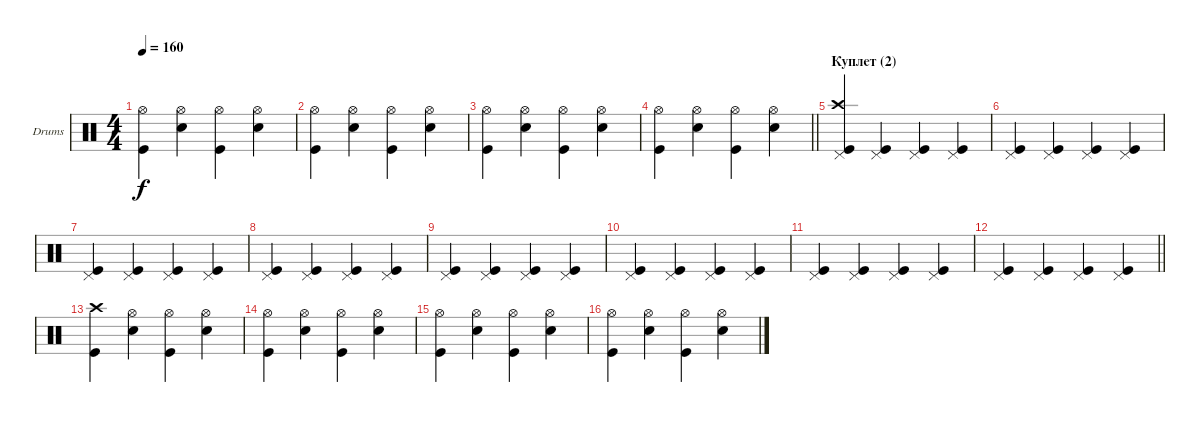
\bracketExtendMode groupsimilarinstruments
\firstSystemTrackNameOrientation horizontal
\otherSystemsTrackNameOrientation horizontal
\track ("Drumkit" "Drums") {instrument percussion}
\staff {score}
\articulation defaults
\ts (4 4)
\tempo 160
\clef neutral
\ks c
("Hi-Hat (open)" "Kick (hit)").4{dy f} ("Hi-Hat (open)" "Snare (hit) 2").4 ("Hi-Hat (open)" "Kick (hit)").4 ("Hi-Hat (open)" "Snare (hit) 2").4 |
("Hi-Hat (open)" "Kick (hit)").4 ("Hi-Hat (open)" "Snare (hit) 2").4 ("Hi-Hat (open)" "Kick (hit)").4 ("Hi-Hat (open)" "Snare (hit) 2").4 |
("Hi-Hat (open)" "Kick (hit)").4 ("Hi-Hat (open)" "Snare (hit) 2").4 ("Hi-Hat (open)" "Kick (hit)").4 ("Hi-Hat (open)" "Snare (hit) 2").4 |
\barLineRight lightlight
("Hi-Hat (open)" "Kick (hit)").4 ("Hi-Hat (open)" "Snare (hit) 2").4 ("Hi-Hat (open)" "Kick (hit)").4 ("Hi-Hat (open)" "Snare (hit) 2").4 |
\section ("" "Куплет (2)")
("Crash high (hit)" "Pedal Hi-Hat (hit)" "Kick (hit)").4 ("Pedal Hi-Hat (hit)" "Kick (hit)").4 ("Pedal Hi-Hat (hit)" "Kick (hit)").4 ("Pedal Hi-Hat (hit)" "Kick (hit)").4 |
("Pedal Hi-Hat (hit)" "Kick (hit)").4 ("Pedal Hi-Hat (hit)" "Kick (hit)").4 ("Pedal Hi-Hat (hit)" "Kick (hit)").4 ("Pedal Hi-Hat (hit)" "Kick (hit)").4 |
("Pedal Hi-Hat (hit)" "Kick (hit)").4 ("Pedal Hi-Hat (hit)" "Kick (hit)").4 ("Pedal Hi-Hat (hit)" "Kick (hit)").4 ("Pedal Hi-Hat (hit)" "Kick (hit)").4 |
("Pedal Hi-Hat (hit)" "Kick (hit)").4 ("Pedal Hi-Hat (hit)" "Kick (hit)").4 ("Pedal Hi-Hat (hit)" "Kick (hit)").4 ("Pedal Hi-Hat (hit)" "Kick (hit)").4 |
("Pedal Hi-Hat (hit)" "Kick (hit)").4 ("Pedal Hi-Hat (hit)" "Kick (hit)").4 ("Pedal Hi-Hat (hit)" "Kick (hit)").4 ("Pedal Hi-Hat (hit)" "Kick (hit)").4 |
("Pedal Hi-Hat (hit)" "Kick (hit)").4 ("Pedal Hi-Hat (hit)" "Kick (hit)").4 ("Pedal Hi-Hat (hit)" "Kick (hit)").4 ("Pedal Hi-Hat (hit)" "Kick (hit)").4 |
("Pedal Hi-Hat (hit)" "Kick (hit)").4 ("Pedal Hi-Hat (hit)" "Kick (hit)").4 ("Pedal Hi-Hat (hit)" "Kick (hit)").4 ("Pedal Hi-Hat (hit)" "Kick (hit)").4 |
\barLineRight lightlight
("Pedal Hi-Hat (hit)" "Kick (hit)").4 ("Pedal Hi-Hat (hit)" "Kick (hit)").4 ("Pedal Hi-Hat (hit)" "Kick (hit)").4 ("Pedal Hi-Hat (hit)" "Kick (hit)").4 |
\section ("" " ")
("Crash high (hit)" "Kick (hit)").4 ("Hi-Hat (open)" "Snare (hit) 2").4 ("Hi-Hat (open)" "Kick (hit)").4 ("Hi-Hat (open)" "Snare (hit) 2").4 |
("Hi-Hat (open)" "Kick (hit)").4 ("Hi-Hat (open)" "Snare (hit) 2").4 ("Hi-Hat (open)" "Kick (hit)").4 ("Hi-Hat (open)" "Snare (hit) 2").4 |
("Hi-Hat (open)" "Kick (hit)").4 ("Hi-Hat (open)" "Snare (hit) 2").4 ("Hi-Hat (open)" "Kick (hit)").4 ("Hi-Hat (open)" "Snare (hit) 2").4 |
("Hi-Hat (open)" "Kick (hit)").4 ("Hi-Hat (open)" "Snare (hit) 2").4 ("Hi-Hat (open)" "Kick (hit)").4 ("Hi-Hat (open)" "Snare (hit) 2").4
